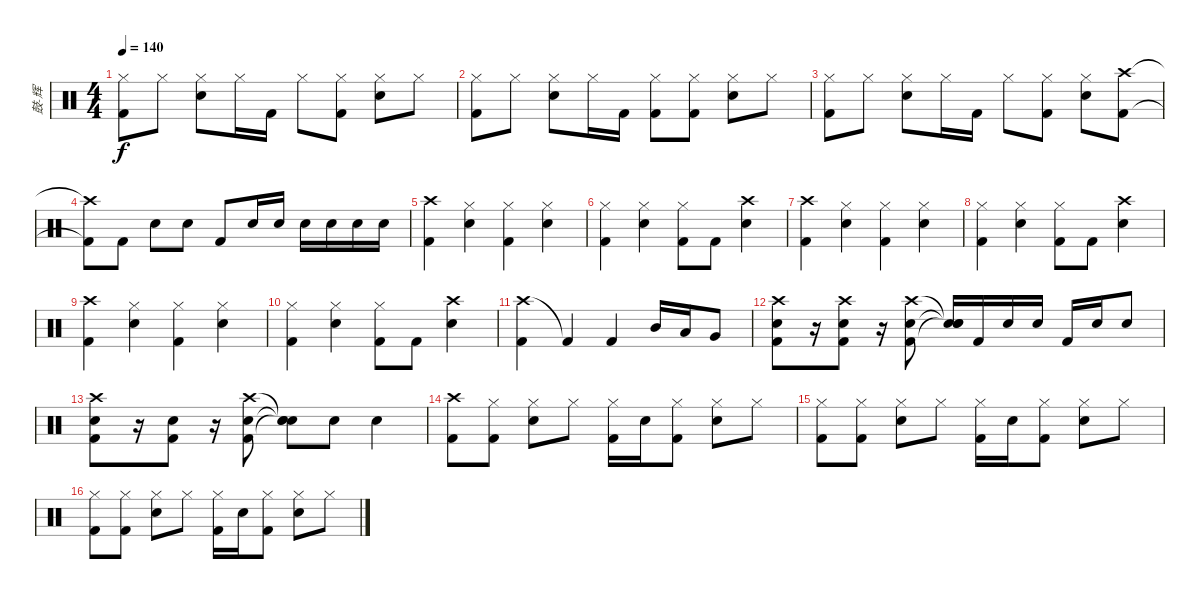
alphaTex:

\track ("鼓-辉" "鼓-辉") {instrument percussion}
\staff {score}
\articulation defaults
\ts (4 4)
\tempo 140
\clef neutral
\ks c
("Hi-Hat (closed)" "Kick (hit) 2").8{dy f} "Hi-Hat (closed)".8 ("Hi-Hat (closed)" "Snare (hit) 2").8 "Hi-Hat (closed)".16 "Kick (hit) 2".16 "Hi-Hat (closed)".8 ("Hi-Hat (closed)" "Kick (hit) 2").8 ("Hi-Hat (closed)" "Snare (hit) 2").8 "Hi-Hat (closed)".8 |
("Hi-Hat (closed)" "Kick (hit) 2").8 "Hi-Hat (closed)".8 ("Hi-Hat (closed)" "Snare (hit) 2").8 "Hi-Hat (closed)".16 "Kick (hit) 2".16 ("Hi-Hat (closed)" "Kick (hit) 2").8 ("Hi-Hat (closed)" "Kick (hit) 2").8 ("Hi-Hat (closed)" "Snare (hit) 2").8 "Hi-Hat (closed)".8 |
("Hi-Hat (closed)" "Kick (hit) 2").8 "Hi-Hat (closed)".8 ("Hi-Hat (closed)" "Snare (hit) 2").8 "Hi-Hat (closed)".16 "Kick (hit) 2".16 "Hi-Hat (closed)".8 ("Hi-Hat (closed)" "Kick (hit) 2").8 ("Hi-Hat (closed)" "Snare (hit) 2").8 ("Crash high (hit)" "Kick (hit) 2").8 |
("Crash high (hit)"{t} "Kick (hit) 2"{t}).8 "Kick (hit) 2".8 "Snare (hit) 2".8 "Snare (hit) 2".8 "Kick (hit) 2".8 "Snare (hit) 2".16 "Snare (hit) 2".16 "Snare (hit) 2".16 "Snare (hit) 2".16 "Snare (hit) 2".16 "Snare (hit) 2".16 |
("Crash high (hit)" "Kick (hit) 2").4 ("Hi-Hat (closed)" "Snare (hit) 2").4 ("Hi-Hat (closed)" "Kick (hit) 2").4 ("Hi-Hat (closed)" "Snare (hit) 2").4 |
("Hi-Hat (closed)" "Kick (hit) 2").4 ("Hi-Hat (closed)" "Snare (hit) 2").4 ("Hi-Hat (closed)" "Kick (hit) 2").8 "Kick (hit) 2".8 ("Crash high (hit)" "Snare (hit) 2").4 |
("Crash high (hit)" "Kick (hit) 2").4 ("Hi-Hat (closed)" "Snare (hit) 2").4 ("Hi-Hat (closed)" "Kick (hit) 2").4 ("Hi-Hat (closed)" "Snare (hit) 2").4 |
("Hi-Hat (closed)" "Kick (hit) 2").4 ("Hi-Hat (closed)" "Snare (hit) 2").4 ("Hi-Hat (closed)" "Kick (hit) 2").8 "Kick (hit) 2".8 ("Crash high (hit)" "Snare (hit) 2").4 |
("Crash high (hit)" "Kick (hit) 2").4 ("Hi-Hat (closed)" "Snare (hit) 2").4 ("Hi-Hat (closed)" "Kick (hit) 2").4 ("Hi-Hat (closed)" "Snare (hit) 2").4 |
("Hi-Hat (closed)" "Kick (hit) 2").4 ("Hi-Hat (closed)" "Snare (hit) 2").4 ("Hi-Hat (closed)" "Kick (hit) 2").8 "Kick (hit) 2".8 ("Crash high (hit)" "Snare (hit) 2").4 |
("Crash high (hit)" "Kick (hit) 2").4 "Kick (hit) 2"{t}.4 "Kick (hit) 2".4 "Mid Tom (hit)".16 "Low Tom (hit)".16 "Very Low Tom (hit)".8 |
("Crash high (hit)" "Snare (hit) 2" "Kick (hit) 2").8 r.16 ("Crash high (hit)" "Snare (hit) 2" "Kick (hit) 2").8 r.16 ("Crash high (hit)" "Snare (hit) 2" "Kick (hit) 2").8 ("Snare (hit)"{t} "Snare (hit) 2"{t} "Snare (hit)"{t}).16 "Kick (hit) 2".16 "Snare (hit) 2".16 "Snare (hit) 2".16 "Kick (hit) 2".16 "Snare (hit) 2".16 "Snare (hit) 2".8 |
("Crash high (hit)" "Snare (hit) 2" "Kick (hit) 2").8 r.16 ("Snare (hit) 2" "Kick (hit) 2").8 r.16 ("Crash high (hit)" "Snare (hit) 2" "Kick (hit) 2").8 ("Snare (hit)"{t} "Snare (hit) 2"{t} "Snare (hit)"{t}).8 "Snare (hit) 2".8 "Snare (hit) 2".4 |
("Crash high (hit)" "Kick (hit) 2").8 ("Hi-Hat (closed)" "Kick (hit) 2").8 ("Hi-Hat (closed)" "Snare (hit) 2").8 "Hi-Hat (closed)".8 ("Hi-Hat (closed)" "Kick (hit) 2").16 "Snare (hit) 2".16 ("Hi-Hat (closed)" "Kick (hit) 2").8 ("Hi-Hat (closed)" "Snare (hit) 2").8 "Hi-Hat (closed)".8 |
("Hi-Hat (closed)" "Kick (hit) 2").8 ("Hi-Hat (closed)" "Kick (hit) 2").8 ("Hi-Hat (closed)" "Snare (hit) 2").8 "Hi-Hat (closed)".8 ("Hi-Hat (closed)" "Kick (hit) 2").16 "Snare (hit) 2".16 ("Hi-Hat (closed)" "Kick (hit) 2").8 ("Hi-Hat (closed)" "Snare (hit) 2").8 "Hi-Hat (closed)".8 |
("Hi-Hat (closed)" "Kick (hit) 2").8 ("Hi-Hat (closed)" "Kick (hit) 2").8 ("Hi-Hat (closed)" "Snare (hit) 2").8 "Hi-Hat (closed)".8 ("Hi-Hat (closed)" "Kick (hit) 2").16 "Snare (hit) 2".16 ("Hi-Hat (closed)" "Kick (hit) 2").8 ("Hi-Hat (closed)" "Snare (hit) 2").8 "Hi-Hat (closed)".8
